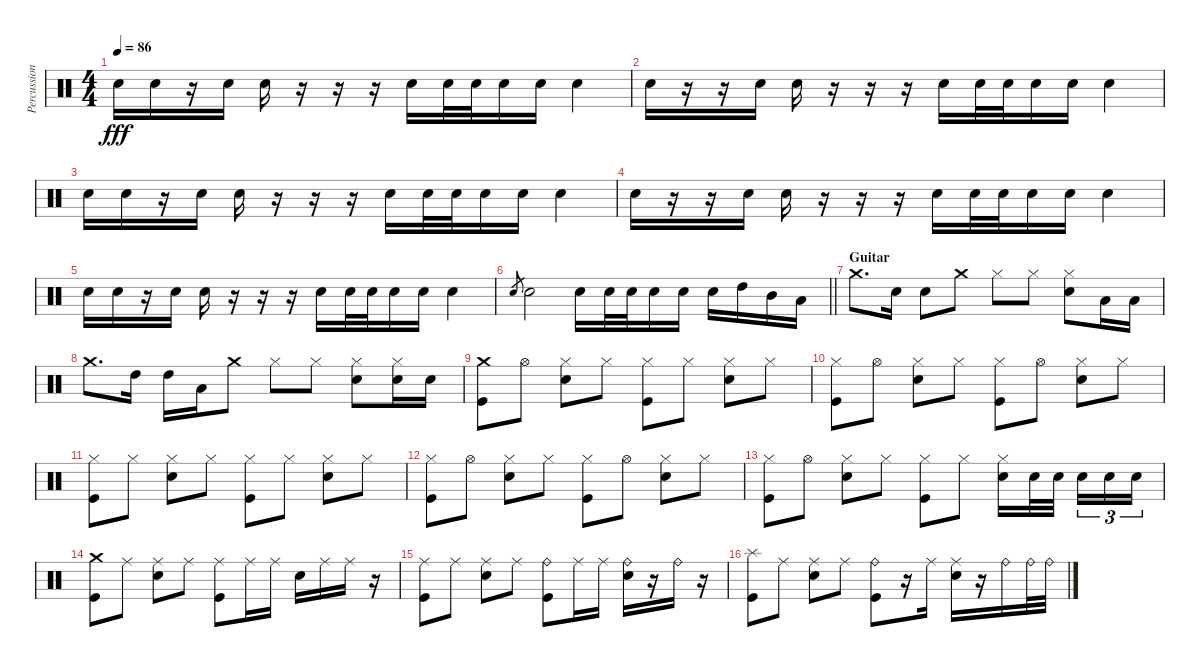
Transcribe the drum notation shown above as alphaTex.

\track ("Percussion 1" "Percussion") {instrument percussion}
\staff {score}
\articulation defaults
\ts (4 4)
\tempo 86
\clef neutral
\ks c "Electric Snare (hit)".16{dy fff} "Electric Snare (hit)".16
r.16 "Electric Snare (hit)".16 "Electric Snare (hit)".16 r.16 r.16 r.16 "Electric Snare (hit)".16 "Electric Snare (hit)".32 "Electric Snare (hit)".32 "Electric Snare (hit)".16 "Electric Snare (hit)".16 "Electric Snare (hit)".4 |
"Electric Snare (hit)".16 r.16 r.16 "Electric Snare (hit)".16 "Electric Snare (hit)".16 r.16 r.16 r.16 "Electric Snare (hit)".16 "Electric Snare (hit)".32 "Electric Snare (hit)".32 "Electric Snare (hit)".16 "Electric Snare (hit)".16 "Electric Snare (hit)".4 |
"Electric Snare (hit)".16 "Electric Snare (hit)".16 r.16 "Electric Snare (hit)".16 "Electric Snare (hit)".16 r.16 r.16 r.16 "Electric Snare (hit)".16 "Electric Snare (hit)".32 "Electric Snare (hit)".32 "Electric Snare (hit)".16 "Electric Snare (hit)".16 "Electric Snare (hit)".4 |
"Electric Snare (hit)".16 r.16 r.16 "Electric Snare (hit)".16 "Electric Snare (hit)".16 r.16 r.16 r.16 "Electric Snare (hit)".16 "Electric Snare (hit)".32 "Electric Snare (hit)".32 "Electric Snare (hit)".16 "Electric Snare (hit)".16 "Electric Snare (hit)".4 |
"Electric Snare (hit)".16 "Electric Snare (hit)".16 r.16 "Electric Snare (hit)".16 "Electric Snare (hit)".16 r.16 r.16 r.16 "Electric Snare (hit)".16 "Electric Snare (hit)".32 "Electric Snare (hit)".32 "Electric Snare (hit)".16 "Electric Snare (hit)".16 "Electric Snare (hit)".4 |
\barLineRight lightlight "Electric Snare (hit)".8{gr} "Electric Snare (hit)".2 "Electric Snare (hit)".16 "Electric Snare (hit)".32 "Electric Snare (hit)".32 "Electric Snare (hit)".16 "Electric Snare (hit)".16 "Electric Snare (hit)".16 "High Tom (hit)".16 "Mid Tom (hit)".16 "Low Tom (hit)".16
|
\section ("" "Guitar ")
"Crash medium (hit)".8{d} "Electric Snare (hit)".16 "Electric Snare (hit)".8 "Crash medium (hit)".8 "Hi-Hat (closed)".8 "Hi-Hat (closed)".8 ("Hi-Hat (closed)" "Electric Snare (hit)").8 "Low Tom (hit)".16 "Low Tom (hit)".16 |
"Crash medium (hit)".8{d} "High Tom (hit)".16 "High Tom (hit)".16 "Low Tom (hit)".16 "Crash medium (hit)".8 "Hi-Hat (closed)".8 "Hi-Hat (closed)".8 ("Hi-Hat (closed)" "Electric Snare (hit)").8 ("Hi-Hat (closed)" "Electric Snare (hit)").16 "Electric Snare (hit)".16 |
("Crash medium (hit)" "Kick (hit)").8 "Hi-Hat (open)".8 ("Hi-Hat (closed)" "Electric Snare (hit)").8 "Hi-Hat (closed)".8 ("Hi-Hat (closed)" "Kick (hit)").8 "Hi-Hat (closed)".8 ("Hi-Hat (closed)" "Electric Snare (hit)").8 "Hi-Hat (closed)".8 |
("Hi-Hat (closed)" "Kick (hit)").8 "Hi-Hat (open)".8 ("Hi-Hat (closed)" "Electric Snare (hit)").8 "Hi-Hat (closed)".8 ("Hi-Hat (closed)" "Kick (hit)").8 "Hi-Hat (open)".8 ("Hi-Hat (closed)" "Electric Snare (hit)").8 "Hi-Hat (closed)".8 |
("Hi-Hat (closed)" "Kick (hit)").8 "Hi-Hat (closed)".8 ("Hi-Hat (closed)" "Electric Snare (hit)").8 "Hi-Hat (closed)".8 ("Hi-Hat (closed)" "Kick (hit)").8 "Hi-Hat (closed)".8 ("Hi-Hat (closed)" "Electric Snare (hit)").8 "Hi-Hat (closed)".8 |
("Hi-Hat (closed)" "Kick (hit)").8 "Hi-Hat (open)".8 ("Hi-Hat (closed)" "Electric Snare (hit)").8 "Hi-Hat (closed)".8 ("Hi-Hat (closed)" "Kick (hit)").8 "Hi-Hat (open)".8 ("Hi-Hat (closed)" "Electric Snare (hit)").8 "Hi-Hat (closed)".8 |
("Hi-Hat (closed)" "Kick (hit)").8 "Hi-Hat (open)".8 ("Hi-Hat (closed)" "Electric Snare (hit)").8 "Hi-Hat (closed)".8 ("Hi-Hat (closed)" "Kick (hit)").8 "Hi-Hat (closed)".8 ("Hi-Hat (closed)" "Electric Snare (hit)").16 "Electric Snare (hit)".32 "Electric Snare (hit)".32{beam splitsecondary} "Electric Snare (hit)".16{tu (3 2)} "Electric Snare (hit)".16{tu (3 2)} "Electric Snare (hit)".16{tu (3 2)} |
("Crash medium (hit)" "Kick (hit)").8 "Ride (middle)".8 ("Ride (middle)" "Electric Snare (hit)").8 "Ride (middle)".8 ("Ride (middle)" "Kick (hit)").8 "Ride (middle)".16 "Ride (middle)".16 "Electric Snare (hit)".16 "Ride (middle)".16 "Ride (middle)".16 r.16 |
("Ride (middle)" "Kick (hit)").8 "Ride (middle)".8 ("Ride (middle)" "Electric Snare (hit)").8 "Ride (middle)".8 ("Ride (bell)" "Kick (hit)").8 "Ride (middle)".16 "Ride (middle)".16 ("Ride (bell)" "Electric Snare (hit)").16 r.16 "Ride (bell)".16 r.16 |
("Splash (hit)" "Kick (hit)").8 "Ride (middle)".8 ("Ride (middle)" "Electric Snare (hit)").8 "Ride (middle)".8 ("Ride (bell)" "Kick (hit)").8 r.16 "Ride (middle)".16 ("Ride (middle)" "Electric Snare (hit)").16 r.16 "Ride (bell)".16 "Ride (bell)".32 "Ride (bell)".32
